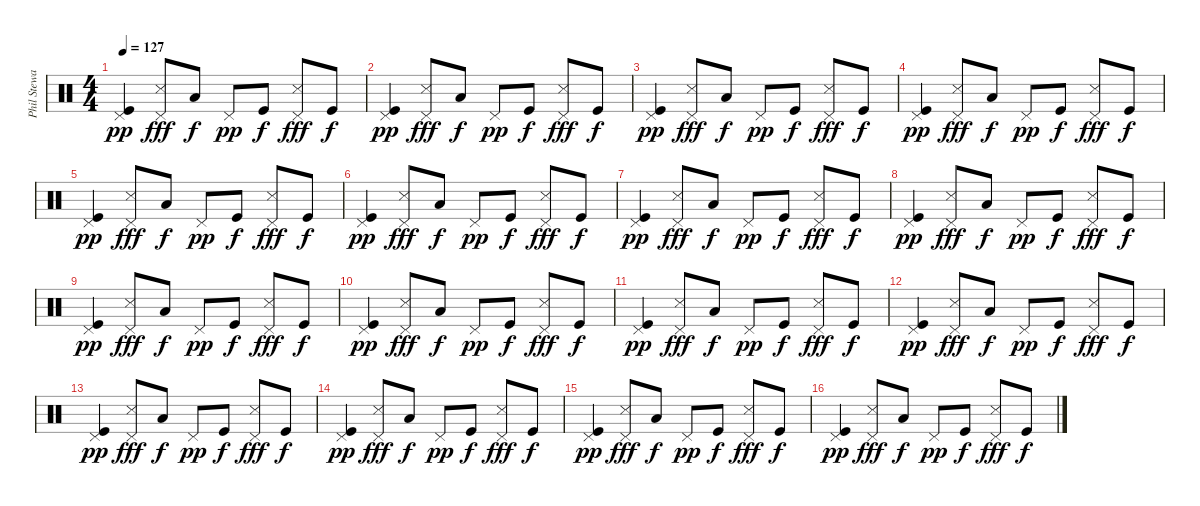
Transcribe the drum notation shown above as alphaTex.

\track ("Phil Steway" "Phil Stewa") {instrument percussion}
\staff {score}
\articulation defaults
\ts (4 4)
\tempo 127
\clef neutral
\ks c
("Pedal Hi-Hat (hit)" "Kick (hit)").4{dy pp} ("Pedal Hi-Hat (hit)" "Snare (side stick) 3").8{dy fff} "Low Tom (hit)".8{dy f} "Pedal Hi-Hat (hit)".8{dy pp} "Kick (hit)".8{dy f} ("Pedal Hi-Hat (hit)" "Snare (side stick) 3").8{dy fff} "Kick (hit)".8{dy f} |
("Pedal Hi-Hat (hit)" "Kick (hit)").4{dy pp} ("Pedal Hi-Hat (hit)" "Snare (side stick) 3").8{dy fff} "Low Tom (hit)".8{dy f} "Pedal Hi-Hat (hit)".8{dy pp} "Kick (hit)".8{dy f} ("Pedal Hi-Hat (hit)" "Snare (side stick) 3").8{dy fff} "Kick (hit)".8{dy f} |
("Pedal Hi-Hat (hit)" "Kick (hit)").4{dy pp} ("Pedal Hi-Hat (hit)" "Snare (side stick) 3").8{dy fff} "Low Tom (hit)".8{dy f} "Pedal Hi-Hat (hit)".8{dy pp} "Kick (hit)".8{dy f} ("Pedal Hi-Hat (hit)" "Snare (side stick) 3").8{dy fff} "Kick (hit)".8{dy f} |
("Pedal Hi-Hat (hit)" "Kick (hit)").4{dy pp} ("Pedal Hi-Hat (hit)" "Snare (side stick) 3").8{dy fff} "Low Tom (hit)".8{dy f} "Pedal Hi-Hat (hit)".8{dy pp} "Kick (hit)".8{dy f} ("Pedal Hi-Hat (hit)" "Snare (side stick) 3").8{dy fff} "Kick (hit)".8{dy f} |
("Pedal Hi-Hat (hit)" "Kick (hit)").4{dy pp} ("Pedal Hi-Hat (hit)" "Snare (side stick) 3").8{dy fff} "Low Tom (hit)".8{dy f} "Pedal Hi-Hat (hit)".8{dy pp} "Kick (hit)".8{dy f} ("Pedal Hi-Hat (hit)" "Snare (side stick) 3").8{dy fff} "Kick (hit)".8{dy f} |
("Pedal Hi-Hat (hit)" "Kick (hit)").4{dy pp} ("Pedal Hi-Hat (hit)" "Snare (side stick) 3").8{dy fff} "Low Tom (hit)".8{dy f} "Pedal Hi-Hat (hit)".8{dy pp} "Kick (hit)".8{dy f} ("Pedal Hi-Hat (hit)" "Snare (side stick) 3").8{dy fff} "Kick (hit)".8{dy f} |
("Pedal Hi-Hat (hit)" "Kick (hit)").4{dy pp} ("Pedal Hi-Hat (hit)" "Snare (side stick) 3").8{dy fff} "Low Tom (hit)".8{dy f} "Pedal Hi-Hat (hit)".8{dy pp} "Kick (hit)".8{dy f} ("Pedal Hi-Hat (hit)" "Snare (side stick) 3").8{dy fff} "Kick (hit)".8{dy f} |
("Pedal Hi-Hat (hit)" "Kick (hit)").4{dy pp} ("Pedal Hi-Hat (hit)" "Snare (side stick) 3").8{dy fff} "Low Tom (hit)".8{dy f} "Pedal Hi-Hat (hit)".8{dy pp} "Kick (hit)".8{dy f} ("Pedal Hi-Hat (hit)" "Snare (side stick) 3").8{dy fff} "Kick (hit)".8{dy f} |
("Pedal Hi-Hat (hit)" "Kick (hit)").4{dy pp} ("Pedal Hi-Hat (hit)" "Snare (side stick) 3").8{dy fff} "Low Tom (hit)".8{dy f} "Pedal Hi-Hat (hit)".8{dy pp} "Kick (hit)".8{dy f} ("Pedal Hi-Hat (hit)" "Snare (side stick) 3").8{dy fff} "Kick (hit)".8{dy f} |
("Pedal Hi-Hat (hit)" "Kick (hit)").4{dy pp} ("Pedal Hi-Hat (hit)" "Snare (side stick) 3").8{dy fff} "Low Tom (hit)".8{dy f} "Pedal Hi-Hat (hit)".8{dy pp} "Kick (hit)".8{dy f} ("Pedal Hi-Hat (hit)" "Snare (side stick) 3").8{dy fff} "Kick (hit)".8{dy f} |
("Pedal Hi-Hat (hit)" "Kick (hit)").4{dy pp} ("Pedal Hi-Hat (hit)" "Snare (side stick) 3").8{dy fff} "Low Tom (hit)".8{dy f} "Pedal Hi-Hat (hit)".8{dy pp} "Kick (hit)".8{dy f} ("Pedal Hi-Hat (hit)" "Snare (side stick) 3").8{dy fff} "Kick (hit)".8{dy f} |
("Pedal Hi-Hat (hit)" "Kick (hit)").4{dy pp} ("Pedal Hi-Hat (hit)" "Snare (side stick) 3").8{dy fff} "Low Tom (hit)".8{dy f} "Pedal Hi-Hat (hit)".8{dy pp} "Kick (hit)".8{dy f} ("Pedal Hi-Hat (hit)" "Snare (side stick) 3").8{dy fff} "Kick (hit)".8{dy f} |
("Pedal Hi-Hat (hit)" "Kick (hit)").4{dy pp} ("Pedal Hi-Hat (hit)" "Snare (side stick) 3").8{dy fff} "Low Tom (hit)".8{dy f} "Pedal Hi-Hat (hit)".8{dy pp} "Kick (hit)".8{dy f} ("Pedal Hi-Hat (hit)" "Snare (side stick) 3").8{dy fff} "Kick (hit)".8{dy f} |
("Pedal Hi-Hat (hit)" "Kick (hit)").4{dy pp} ("Pedal Hi-Hat (hit)" "Snare (side stick) 3").8{dy fff} "Low Tom (hit)".8{dy f} "Pedal Hi-Hat (hit)".8{dy pp} "Kick (hit)".8{dy f} ("Pedal Hi-Hat (hit)" "Snare (side stick) 3").8{dy fff} "Kick (hit)".8{dy f} |
("Pedal Hi-Hat (hit)" "Kick (hit)").4{dy pp} ("Pedal Hi-Hat (hit)" "Snare (side stick) 3").8{dy fff} "Low Tom (hit)".8{dy f} "Pedal Hi-Hat (hit)".8{dy pp} "Kick (hit)".8{dy f} ("Pedal Hi-Hat (hit)" "Snare (side stick) 3").8{dy fff} "Kick (hit)".8{dy f} |
("Pedal Hi-Hat (hit)" "Kick (hit)").4{dy pp} ("Pedal Hi-Hat (hit)" "Snare (side stick) 3").8{dy fff} "Low Tom (hit)".8{dy f} "Pedal Hi-Hat (hit)".8{dy pp} "Kick (hit)".8{dy f} ("Pedal Hi-Hat (hit)" "Snare (side stick) 3").8{dy fff} "Kick (hit)".8{dy f}
